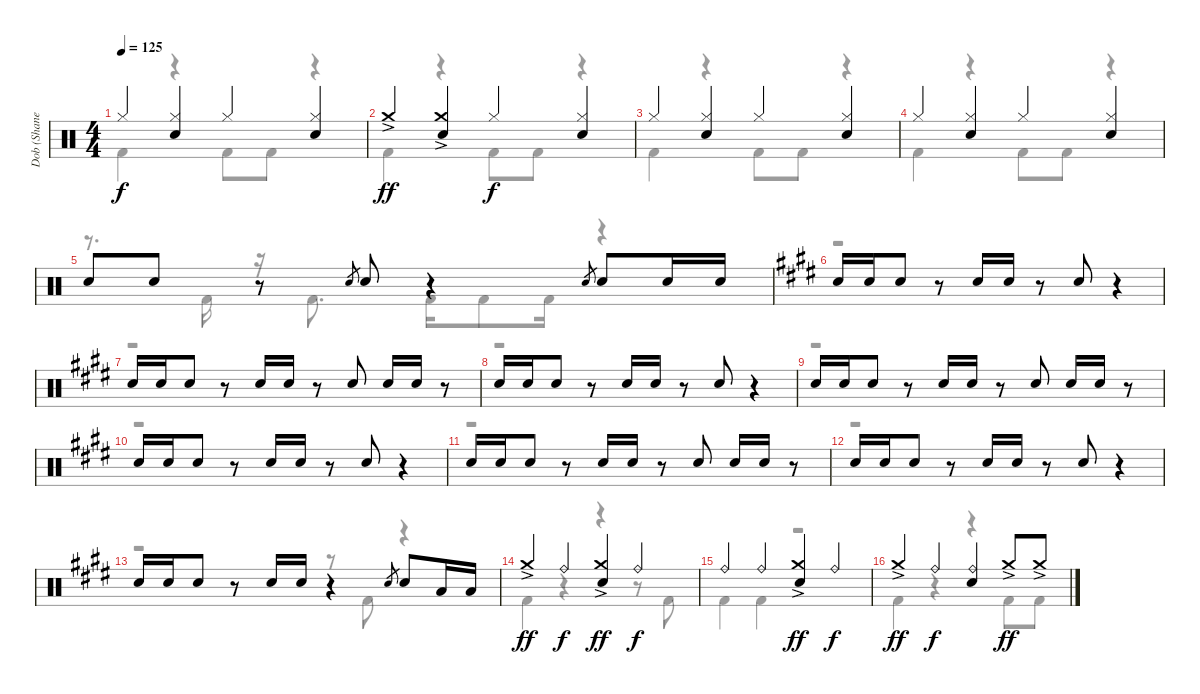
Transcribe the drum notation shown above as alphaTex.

\track ("Dob (Shane Gaalaas)" "Dob (Shane") {instrument percussion}
\staff {score}
\articulation defaults
\voice
\ts (4 4)
\tempo 125
\clef neutral
\ks c "Hi-Hat (closed)".4{dy f}
("Hi-Hat (closed)" "Electric Snare (hit)").4 "Hi-Hat (closed)".4 ("Hi-Hat (closed)" "Electric Snare (hit)").4 |
"Crash medium (hit)"{ac}.4{dy ff} ("Crash medium (hit)"{ac} "Electric Snare (hit)").4 "Hi-Hat (closed)".4{dy f} ("Hi-Hat (closed)" "Electric Snare (hit)").4 |
"Hi-Hat (closed)".4 ("Hi-Hat (closed)" "Electric Snare (hit)").4 "Hi-Hat (closed)".4 ("Hi-Hat (closed)" "Electric Snare (hit)").4 |
"Hi-Hat (closed)".4 ("Hi-Hat (closed)" "Electric Snare (hit)").4 "Hi-Hat (closed)".4 ("Hi-Hat (closed)" "Electric Snare (hit)").4 |
"Electric Snare (hit)".8 "Electric Snare (hit)".8 r.8 "Electric Snare (hit)".8{gr} "Electric Snare (hit)".8 r.4 "Electric Snare (hit)".8{gr} "Electric Snare (hit)".8 "Electric Snare (hit)".16 "Electric Snare (hit)".16 |
\ks e "Electric Snare (hit)".16 "Electric Snare (hit)".16 "Electric Snare (hit)".8
r.8 "Electric Snare (hit)".16 "Electric Snare (hit)".16 r.8 "Electric Snare (hit)".8 r.4 |
"Electric Snare (hit)".16 "Electric Snare (hit)".16 "Electric Snare (hit)".8 r.8 "Electric Snare (hit)".16 "Electric Snare (hit)".16 r.8 "Electric Snare (hit)".8 "Electric Snare (hit)".16 "Electric Snare (hit)".16 r.8 |
"Electric Snare (hit)".16 "Electric Snare (hit)".16 "Electric Snare (hit)".8 r.8 "Electric Snare (hit)".16 "Electric Snare (hit)".16 r.8 "Electric Snare (hit)".8 r.4 |
"Electric Snare (hit)".16 "Electric Snare (hit)".16 "Electric Snare (hit)".8 r.8 "Electric Snare (hit)".16 "Electric Snare (hit)".16 r.8 "Electric Snare (hit)".8 "Electric Snare (hit)".16 "Electric Snare (hit)".16 r.8 |
"Electric Snare (hit)".16 "Electric Snare (hit)".16 "Electric Snare (hit)".8 r.8 "Electric Snare (hit)".16 "Electric Snare (hit)".16 r.8 "Electric Snare (hit)".8 r.4 |
"Electric Snare (hit)".16 "Electric Snare (hit)".16 "Electric Snare (hit)".8 r.8 "Electric Snare (hit)".16 "Electric Snare (hit)".16 r.8 "Electric Snare (hit)".8 "Electric Snare (hit)".16 "Electric Snare (hit)".16 r.8 |
"Electric Snare (hit)".16 "Electric Snare (hit)".16 "Electric Snare (hit)".8 r.8 "Electric Snare (hit)".16 "Electric Snare (hit)".16 r.8 "Electric Snare (hit)".8 r.4 |
"Electric Snare (hit)".16 "Electric Snare (hit)".16 "Electric Snare (hit)".8 r.8 "Electric Snare (hit)".16 "Electric Snare (hit)".16 r.4 "Electric Snare (hit)".8{gr} "Electric Snare (hit)".8 "Low Tom (hit)".16 "Low Tom (hit)".16 |
"Crash medium (hit)"{ac}.4{dy ff} "Ride (bell)".4{dy f} ("Crash medium (hit)"{ac} "Electric Snare (hit)").4{dy ff} "Ride (bell)".4{dy f} |
"Ride (bell)".4 "Ride (bell)".4 ("Crash medium (hit)"{ac} "Electric Snare (hit)").4{dy ff} "Ride (bell)".4{dy f} |
"Crash medium (hit)"{ac}.4{dy ff} "Ride (bell)".4{dy f} ("Ride (bell)" "Electric Snare (hit)").4 "Crash medium (hit)"{ac}.8{dy ff} "Crash medium (hit)"{ac}.8
\voice
\clef neutral
\ottava regular
\simile none
\ks c "Kick (hit) 2".4{dy f}
r.4 "Kick (hit) 2".8 "Kick (hit) 2".8 r.4 |
"Kick (hit) 2".4 r.4 "Kick (hit) 2".8 "Kick (hit) 2".8 r.4 |
"Kick (hit) 2".4 r.4 "Kick (hit) 2".8 "Kick (hit) 2".8 r.4 |
"Kick (hit) 2".4 r.4 "Kick (hit) 2".8 "Kick (hit) 2".8 r.4 |
r.8{d} "Kick (hit) 2".16 r.16 "Kick (hit) 2".8{d} "Kick (hit) 2".16 "Kick (hit) 2".8 "Kick (hit) 2".16 r.4 |
\ks e
r.1 |
r.1 |
r.1 |
r.1 |
r.1 |
r.1 |
r.1 |
r.2 r.8 "Kick (hit) 2".8 r.4 |
"Kick (hit) 2".4 r.4 r.4 r.8 "Kick (hit) 2".8 |
"Kick (hit) 2".4 "Kick (hit) 2".4 r.2 |
"Kick (hit) 2".4 r.4 r.4 "Kick (hit) 2".8 "Kick (hit) 2".8
